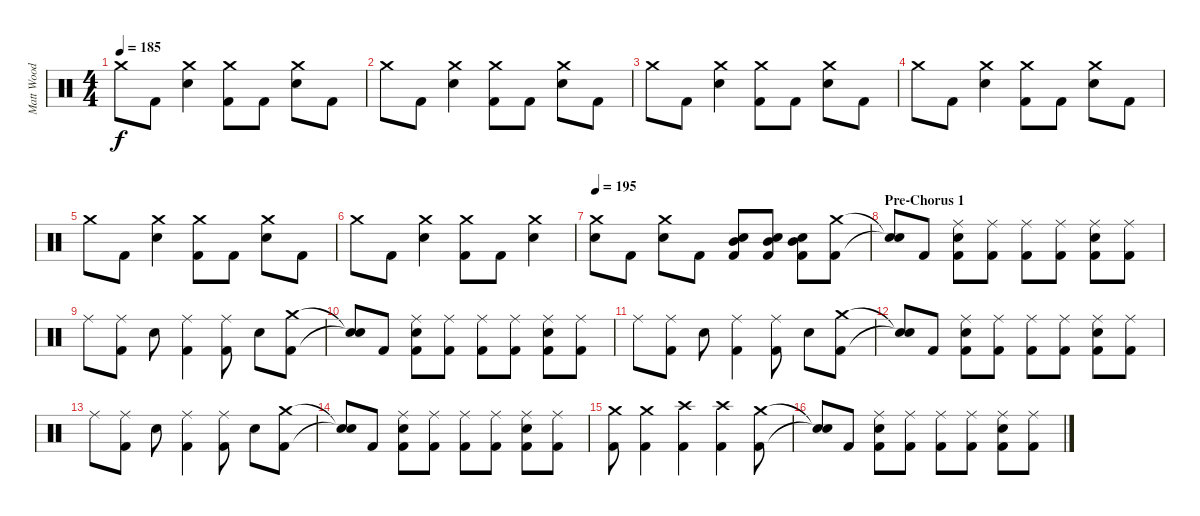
\track ("Matt Wood" "Matt Wood") {instrument percussion}
\staff {score}
\articulation defaults
\ts (4 4)
\tempo 185
\clef neutral
\ks c "Crash medium (hit)".8{dy f} "Kick (hit) 2".8
("Crash medium (hit)" "Snare (hit) 2").4 ("Crash medium (hit)" "Kick (hit) 2").8 "Kick (hit) 2".8 ("Crash medium (hit)" "Snare (hit) 2").8 "Kick (hit) 2".8 |
"Crash medium (hit)".8 "Kick (hit) 2".8 ("Crash medium (hit)" "Snare (hit) 2").4 ("Crash medium (hit)" "Kick (hit) 2").8 "Kick (hit) 2".8 ("Crash medium (hit)" "Snare (hit) 2").8 "Kick (hit) 2".8 |
"Crash medium (hit)".8 "Kick (hit) 2".8 ("Crash medium (hit)" "Snare (hit) 2").4 ("Crash medium (hit)" "Kick (hit) 2").8 "Kick (hit) 2".8 ("Crash medium (hit)" "Snare (hit) 2").8 "Kick (hit) 2".8 |
"Crash medium (hit)".8 "Kick (hit) 2".8 ("Crash medium (hit)" "Snare (hit) 2").4 ("Crash medium (hit)" "Kick (hit) 2").8 "Kick (hit) 2".8 ("Crash medium (hit)" "Snare (hit) 2").8 "Kick (hit) 2".8 |
"Crash medium (hit)".8 "Kick (hit) 2".8 ("Crash medium (hit)" "Snare (hit) 2").4 ("Crash medium (hit)" "Kick (hit) 2").8 "Kick (hit) 2".8 ("Crash medium (hit)" "Snare (hit) 2").8 "Kick (hit) 2".8 |
"Crash medium (hit)".8 "Kick (hit) 2".8 ("Crash medium (hit)" "Snare (hit) 2").4 ("Crash medium (hit)" "Kick (hit) 2").8 "Kick (hit) 2".8 ("Crash medium (hit)" "Snare (hit) 2").4 |
\tempo 195
("Crash medium (hit)" "Snare (hit) 2").8 "Kick (hit) 2".8 ("Crash medium (hit)" "Snare (hit) 2").8 "Kick (hit) 2".8 ("Mid Tom (hit)" "Snare (hit) 2" "Kick (hit) 2").8 ("Mid Tom (hit)" "Snare (hit) 2" "Kick (hit) 2").8 ("Mid Tom (hit)" "Snare (hit) 2" "Kick (hit) 2").8 ("Crash medium (hit)" "Kick (hit) 2").8 |
\section ("" "Pre-Chorus 1")
("Snare (hit)"{t} "Snare (hit)"{t}).8 "Kick (hit) 2".8 ("Ride (middle)" "Snare (hit) 2" "Kick (hit) 2").8 ("Ride (middle)" "Kick (hit) 2").8 ("Ride (middle)" "Kick (hit) 2").8 ("Ride (middle)" "Kick (hit) 2").8 ("Ride (middle)" "Snare (hit) 2" "Kick (hit) 2").8 ("Ride (middle)" "Kick (hit) 2").8 |
"Ride (middle)".8 ("Ride (middle)" "Kick (hit) 2").8 "Snare (hit) 2".8 ("Ride (middle)" "Kick (hit) 2").4 ("Ride (middle)" "Kick (hit) 2").8 "Snare (hit) 2".8 ("Crash medium (hit)" "Kick (hit) 2").8 |
("Snare (hit)"{t} "Snare (hit)"{t}).8 "Kick (hit) 2".8 ("Ride (middle)" "Snare (hit) 2" "Kick (hit) 2").8 ("Ride (middle)" "Kick (hit) 2").8 ("Ride (middle)" "Kick (hit) 2").8 ("Ride (middle)" "Kick (hit) 2").8 ("Ride (middle)" "Snare (hit) 2" "Kick (hit) 2").8 ("Ride (middle)" "Kick (hit) 2").8 |
"Ride (middle)".8 ("Ride (middle)" "Kick (hit) 2").8 "Snare (hit) 2".8 ("Ride (middle)" "Kick (hit) 2").4 ("Ride (middle)" "Kick (hit) 2").8 "Snare (hit) 2".8 ("Crash medium (hit)" "Kick (hit) 2").8 |
("Snare (hit)"{t} "Snare (hit)"{t}).8 "Kick (hit) 2".8 ("Ride (middle)" "Snare (hit) 2" "Kick (hit) 2").8 ("Ride (middle)" "Kick (hit) 2").8 ("Ride (middle)" "Kick (hit) 2").8 ("Ride (middle)" "Kick (hit) 2").8 ("Ride (middle)" "Snare (hit) 2" "Kick (hit) 2").8 ("Ride (middle)" "Kick (hit) 2").8 |
"Ride (middle)".8 ("Ride (middle)" "Kick (hit) 2").8 "Snare (hit) 2".8 ("Ride (middle)" "Kick (hit) 2").4 ("Ride (middle)" "Kick (hit) 2").8 "Snare (hit) 2".8 ("Crash medium (hit)" "Kick (hit) 2").8 |
("Snare (hit)"{t} "Snare (hit)"{t}).8 "Kick (hit) 2".8 ("Ride (middle)" "Snare (hit) 2" "Kick (hit) 2").8 ("Ride (middle)" "Kick (hit) 2").8 ("Ride (middle)" "Kick (hit) 2").8 ("Ride (middle)" "Kick (hit) 2").8 ("Ride (middle)" "Snare (hit) 2" "Kick (hit) 2").8 ("Ride (middle)" "Kick (hit) 2").8 |
("Crash medium (hit)" "Kick (hit) 2").8 ("Crash medium (hit)" "Kick (hit) 2").4 ("Crash high (hit)" "Kick (hit) 2").4 ("Crash high (hit)" "Kick (hit) 2").4 ("Crash medium (hit)" "Kick (hit) 2").8 |
("Snare (hit)"{t} "Snare (hit)"{t}).8 "Kick (hit) 2".8 ("Ride (middle)" "Snare (hit) 2" "Kick (hit) 2").8 ("Ride (middle)" "Kick (hit) 2").8 ("Ride (middle)" "Kick (hit) 2").8 ("Ride (middle)" "Kick (hit) 2").8 ("Ride (middle)" "Snare (hit) 2" "Kick (hit) 2").8 ("Ride (middle)" "Kick (hit) 2").8
